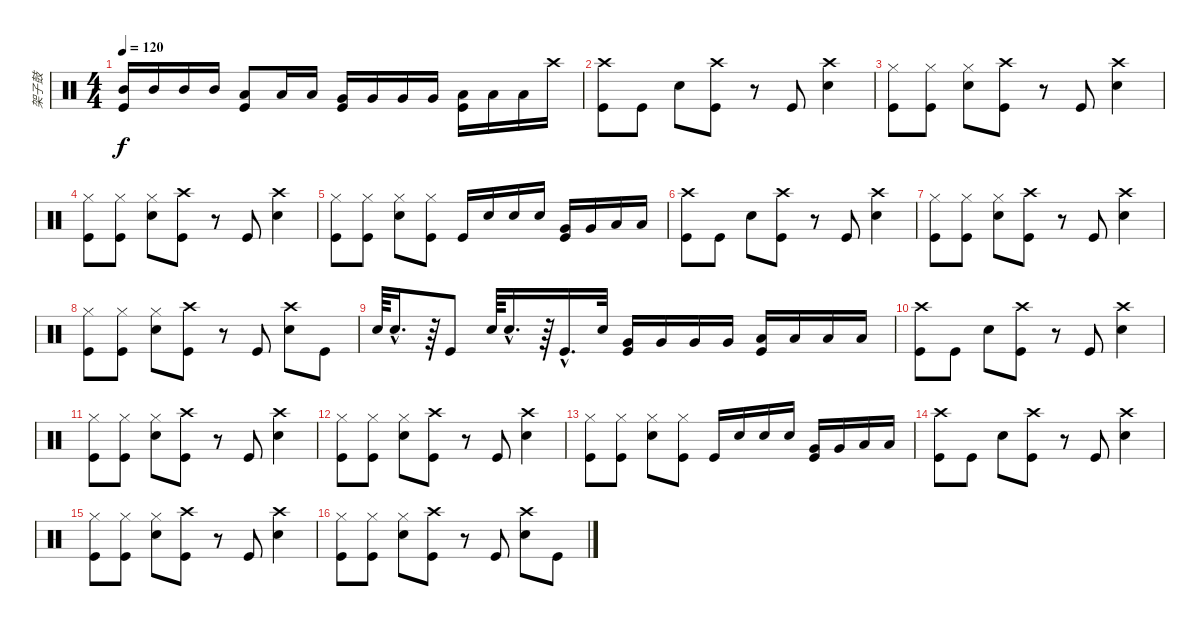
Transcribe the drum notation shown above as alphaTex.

\track ("架子鼓" "架子鼓") {instrument percussion}
\staff {score}
\articulation defaults
\ts (4 4)
\tempo 120
\clef neutral
\ks c
("Kick (hit)" "Mid Tom (hit)").16{dy f} "Mid Tom (hit)".16 "Mid Tom (hit)".16 "Mid Tom (hit)".16 ("Kick (hit)" "Low Tom (hit)").8 "Low Tom (hit)".16 "Low Tom (hit)".16 ("Kick (hit)" "Very Low Tom (hit)").16 "Very Low Tom (hit)".16 "Very Low Tom (hit)".16 "Very Low Tom (hit)".16 ("Kick (hit)" "Low Floor Tom (hit)").16 "Low Floor Tom (hit)".16 "Low Floor Tom (hit)".16 "Crash high (hit)".16 |
("Crash high (hit)" "Kick (hit)").8 "Kick (hit)".8 "Snare (hit) 2".8 ("Crash high (hit)" "Kick (hit)").8 r.8 "Kick (hit)".8 ("Crash high (hit)" "Snare (hit) 2").4 |
("Hi-Hat (closed)" "Kick (hit)").8 ("Hi-Hat (closed)" "Kick (hit)").8 ("Hi-Hat (closed)" "Snare (hit) 2").8 ("Crash high (hit)" "Kick (hit)").8 r.8 "Kick (hit)".8 ("Crash high (hit)" "Snare (hit) 2").4 |
("Hi-Hat (closed)" "Kick (hit)").8 ("Hi-Hat (closed)" "Kick (hit)").8 ("Hi-Hat (closed)" "Snare (hit) 2").8 ("Crash high (hit)" "Kick (hit)").8 r.8 "Kick (hit)".8 ("Crash high (hit)" "Snare (hit) 2").4 |
("Hi-Hat (closed)" "Kick (hit)").8 ("Hi-Hat (closed)" "Kick (hit)").8 ("Hi-Hat (closed)" "Snare (hit) 2").8 ("Hi-Hat (closed)" "Kick (hit)").8 "Kick (hit)".16 "Snare (hit) 2".16 "Snare (hit) 2".16 "Snare (hit) 2".16 ("Kick (hit)" "Very Low Tom (hit)").16 "Very Low Tom (hit)".16 "Low Floor Tom (hit)".16 "Low Floor Tom (hit)".16 |
("Crash high (hit)" "Kick (hit)").8 "Kick (hit)".8 "Snare (hit) 2".8 ("Crash high (hit)" "Kick (hit)").8 r.8 "Kick (hit)".8 ("Crash high (hit)" "Snare (hit) 2").4 |
("Hi-Hat (closed)" "Kick (hit)").8 ("Hi-Hat (closed)" "Kick (hit)").8 ("Hi-Hat (closed)" "Snare (hit) 2").8 ("Crash high (hit)" "Kick (hit)").8 r.8 "Kick (hit)".8 ("Crash high (hit)" "Snare (hit) 2").4 |
("Hi-Hat (closed)" "Kick (hit)").8 ("Hi-Hat (closed)" "Kick (hit)").8 ("Hi-Hat (closed)" "Snare (hit) 2").8 ("Crash high (hit)" "Kick (hit)").8 r.8 "Kick (hit)".8 ("Crash high (hit)" "Snare (hit) 2").8 "Kick (hit)".8 |
"Snare (hit) 2".64 "Snare (hit) 2"{hac}.16{d} r.64 "Kick (hit)".8 "Snare (hit) 2".64 "Snare (hit) 2"{hac}.16{d} r.64 "Kick (hit)"{hac}.16{d} "Snare (hit) 2".32 ("Kick (hit)" "Very Low Tom (hit)").16 "Very Low Tom (hit)".16 "Very Low Tom (hit)".16 "Very Low Tom (hit)".16 ("Kick (hit)" "Low Floor Tom (hit)").16 "Low Floor Tom (hit)".16 "Low Floor Tom (hit)".16 "Low Floor Tom (hit)".16 |
("Crash high (hit)" "Kick (hit)").8 "Kick (hit)".8 "Snare (hit) 2".8 ("Crash high (hit)" "Kick (hit)").8 r.8 "Kick (hit)".8 ("Crash high (hit)" "Snare (hit) 2").4 |
("Hi-Hat (closed)" "Kick (hit)").8 ("Hi-Hat (closed)" "Kick (hit)").8 ("Hi-Hat (closed)" "Snare (hit) 2").8 ("Crash high (hit)" "Kick (hit)").8 r.8 "Kick (hit)".8 ("Crash high (hit)" "Snare (hit) 2").4 |
("Hi-Hat (closed)" "Kick (hit)").8 ("Hi-Hat (closed)" "Kick (hit)").8 ("Hi-Hat (closed)" "Snare (hit) 2").8 ("Crash high (hit)" "Kick (hit)").8 r.8 "Kick (hit)".8 ("Crash high (hit)" "Snare (hit) 2").4 |
("Hi-Hat (closed)" "Kick (hit)").8 ("Hi-Hat (closed)" "Kick (hit)").8 ("Hi-Hat (closed)" "Snare (hit) 2").8 ("Hi-Hat (closed)" "Kick (hit)").8 "Kick (hit)".16 "Snare (hit) 2".16 "Snare (hit) 2".16 "Snare (hit) 2".16 ("Kick (hit)" "Very Low Tom (hit)").16 "Very Low Tom (hit)".16 "Low Floor Tom (hit)".16 "Low Floor Tom (hit)".16 |
("Crash high (hit)" "Kick (hit)").8 "Kick (hit)".8 "Snare (hit) 2".8 ("Crash high (hit)" "Kick (hit)").8 r.8 "Kick (hit)".8 ("Crash high (hit)" "Snare (hit) 2").4 |
("Hi-Hat (closed)" "Kick (hit)").8 ("Hi-Hat (closed)" "Kick (hit)").8 ("Hi-Hat (closed)" "Snare (hit) 2").8 ("Crash high (hit)" "Kick (hit)").8 r.8 "Kick (hit)".8 ("Crash high (hit)" "Snare (hit) 2").4 |
("Hi-Hat (closed)" "Kick (hit)").8 ("Hi-Hat (closed)" "Kick (hit)").8 ("Hi-Hat (closed)" "Snare (hit) 2").8 ("Crash high (hit)" "Kick (hit)").8 r.8 "Kick (hit)".8 ("Crash high (hit)" "Snare (hit) 2").8 "Kick (hit)".8
